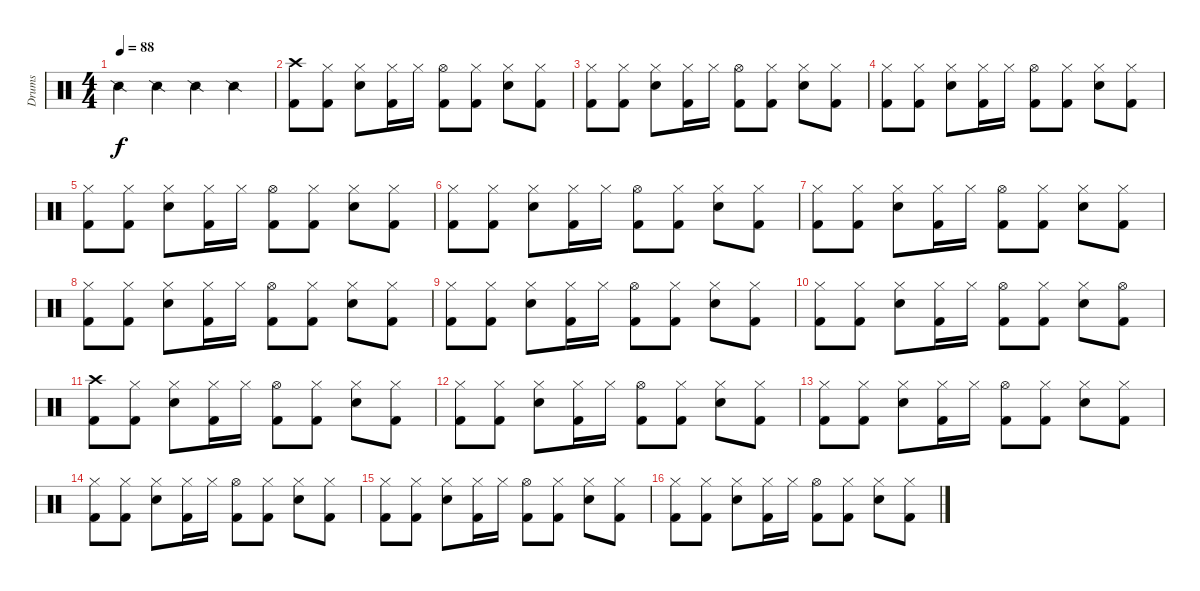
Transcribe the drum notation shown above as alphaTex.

\track ("Drums" "Drums") {instrument percussion}
\staff {score}
\articulation defaults
\ts (4 4)
\tempo 88
\clef neutral
\ks c "Snare (side stick) 2".4{dy f} "Snare (side stick) 2".4 "Snare (side stick) 2".4 "Snare (side stick) 2".4
|
("Crash high (hit)" "Kick (hit) 2").8 ("Hi-Hat (closed)" "Kick (hit) 2").8 ("Hi-Hat (closed)" "Electric Snare (hit)").8 ("Hi-Hat (closed)" "Kick (hit) 2").16 "Hi-Hat (closed)".16 ("Hi-Hat (open)" "Kick (hit) 2").8 ("Hi-Hat (closed)" "Kick (hit) 2").8 ("Hi-Hat (closed)" "Electric Snare (hit)").8 ("Hi-Hat (closed)" "Kick (hit) 2").8 |
("Hi-Hat (closed)" "Kick (hit) 2").8 ("Hi-Hat (closed)" "Kick (hit) 2").8 ("Hi-Hat (closed)" "Electric Snare (hit)").8 ("Hi-Hat (closed)" "Kick (hit) 2").16 "Hi-Hat (closed)".16 ("Hi-Hat (open)" "Kick (hit) 2").8 ("Hi-Hat (closed)" "Kick (hit) 2").8 ("Hi-Hat (closed)" "Electric Snare (hit)").8 ("Hi-Hat (closed)" "Kick (hit) 2").8 |
("Hi-Hat (closed)" "Kick (hit) 2").8 ("Hi-Hat (closed)" "Kick (hit) 2").8 ("Hi-Hat (closed)" "Electric Snare (hit)").8 ("Hi-Hat (closed)" "Kick (hit) 2").16 "Hi-Hat (closed)".16 ("Hi-Hat (open)" "Kick (hit) 2").8 ("Hi-Hat (closed)" "Kick (hit) 2").8 ("Hi-Hat (closed)" "Electric Snare (hit)").8 ("Hi-Hat (closed)" "Kick (hit) 2").8 |
("Hi-Hat (closed)" "Kick (hit) 2").8 ("Hi-Hat (closed)" "Kick (hit) 2").8 ("Hi-Hat (closed)" "Electric Snare (hit)").8 ("Hi-Hat (closed)" "Kick (hit) 2").16 "Hi-Hat (closed)".16 ("Hi-Hat (open)" "Kick (hit) 2").8 ("Hi-Hat (closed)" "Kick (hit) 2").8 ("Hi-Hat (closed)" "Electric Snare (hit)").8 ("Hi-Hat (closed)" "Kick (hit) 2").8 |
("Hi-Hat (closed)" "Kick (hit) 2").8 ("Hi-Hat (closed)" "Kick (hit) 2").8 ("Hi-Hat (closed)" "Electric Snare (hit)").8 ("Hi-Hat (closed)" "Kick (hit) 2").16 "Hi-Hat (closed)".16 ("Hi-Hat (open)" "Kick (hit) 2").8 ("Hi-Hat (closed)" "Kick (hit) 2").8 ("Hi-Hat (closed)" "Electric Snare (hit)").8 ("Hi-Hat (closed)" "Kick (hit) 2").8 |
("Hi-Hat (closed)" "Kick (hit) 2").8 ("Hi-Hat (closed)" "Kick (hit) 2").8 ("Hi-Hat (closed)" "Electric Snare (hit)").8 ("Hi-Hat (closed)" "Kick (hit) 2").16 "Hi-Hat (closed)".16 ("Hi-Hat (open)" "Kick (hit) 2").8 ("Hi-Hat (closed)" "Kick (hit) 2").8 ("Hi-Hat (closed)" "Electric Snare (hit)").8 ("Hi-Hat (closed)" "Kick (hit) 2").8 |
("Hi-Hat (closed)" "Kick (hit) 2").8 ("Hi-Hat (closed)" "Kick (hit) 2").8 ("Hi-Hat (closed)" "Electric Snare (hit)").8 ("Hi-Hat (closed)" "Kick (hit) 2").16 "Hi-Hat (closed)".16 ("Hi-Hat (open)" "Kick (hit) 2").8 ("Hi-Hat (closed)" "Kick (hit) 2").8 ("Hi-Hat (closed)" "Electric Snare (hit)").8 ("Hi-Hat (closed)" "Kick (hit) 2").8 |
("Hi-Hat (closed)" "Kick (hit) 2").8 ("Hi-Hat (closed)" "Kick (hit) 2").8 ("Hi-Hat (closed)" "Electric Snare (hit)").8 ("Hi-Hat (closed)" "Kick (hit) 2").16 "Hi-Hat (closed)".16 ("Hi-Hat (open)" "Kick (hit) 2").8 ("Hi-Hat (closed)" "Kick (hit) 2").8 ("Hi-Hat (closed)" "Electric Snare (hit)").8 ("Hi-Hat (closed)" "Kick (hit) 2").8 |
("Hi-Hat (closed)" "Kick (hit) 2").8 ("Hi-Hat (closed)" "Kick (hit) 2").8 ("Hi-Hat (closed)" "Electric Snare (hit)").8 ("Hi-Hat (closed)" "Kick (hit) 2").16 "Hi-Hat (closed)".16 ("Hi-Hat (open)" "Kick (hit) 2").8 ("Hi-Hat (closed)" "Kick (hit) 2").8 ("Hi-Hat (closed)" "Electric Snare (hit)").8 ("Hi-Hat (open)" "Kick (hit) 2").8 |
("Crash high (hit)" "Kick (hit) 2").8 ("Hi-Hat (closed)" "Kick (hit) 2").8 ("Hi-Hat (closed)" "Electric Snare (hit)").8 ("Hi-Hat (closed)" "Kick (hit) 2").16 "Hi-Hat (closed)".16 ("Hi-Hat (open)" "Kick (hit) 2").8 ("Hi-Hat (closed)" "Kick (hit) 2").8 ("Hi-Hat (closed)" "Electric Snare (hit)").8 ("Hi-Hat (closed)" "Kick (hit) 2").8 |
("Hi-Hat (closed)" "Kick (hit) 2").8 ("Hi-Hat (closed)" "Kick (hit) 2").8 ("Hi-Hat (closed)" "Electric Snare (hit)").8 ("Hi-Hat (closed)" "Kick (hit) 2").16 "Hi-Hat (closed)".16 ("Hi-Hat (open)" "Kick (hit) 2").8 ("Hi-Hat (closed)" "Kick (hit) 2").8 ("Hi-Hat (closed)" "Electric Snare (hit)").8 ("Hi-Hat (closed)" "Kick (hit) 2").8 |
("Hi-Hat (closed)" "Kick (hit) 2").8 ("Hi-Hat (closed)" "Kick (hit) 2").8 ("Hi-Hat (closed)" "Electric Snare (hit)").8 ("Hi-Hat (closed)" "Kick (hit) 2").16 "Hi-Hat (closed)".16 ("Hi-Hat (open)" "Kick (hit) 2").8 ("Hi-Hat (closed)" "Kick (hit) 2").8 ("Hi-Hat (closed)" "Electric Snare (hit)").8 ("Hi-Hat (closed)" "Kick (hit) 2").8 |
("Hi-Hat (closed)" "Kick (hit) 2").8 ("Hi-Hat (closed)" "Kick (hit) 2").8 ("Hi-Hat (closed)" "Electric Snare (hit)").8 ("Hi-Hat (closed)" "Kick (hit) 2").16 "Hi-Hat (closed)".16 ("Hi-Hat (open)" "Kick (hit) 2").8 ("Hi-Hat (closed)" "Kick (hit) 2").8 ("Hi-Hat (closed)" "Electric Snare (hit)").8 ("Hi-Hat (closed)" "Kick (hit) 2").8 |
("Hi-Hat (closed)" "Kick (hit) 2").8 ("Hi-Hat (closed)" "Kick (hit) 2").8 ("Hi-Hat (closed)" "Electric Snare (hit)").8 ("Hi-Hat (closed)" "Kick (hit) 2").16 "Hi-Hat (closed)".16 ("Hi-Hat (open)" "Kick (hit) 2").8 ("Hi-Hat (closed)" "Kick (hit) 2").8 ("Hi-Hat (closed)" "Electric Snare (hit)").8 ("Hi-Hat (closed)" "Kick (hit) 2").8 |
("Hi-Hat (closed)" "Kick (hit) 2").8 ("Hi-Hat (closed)" "Kick (hit) 2").8 ("Hi-Hat (closed)" "Electric Snare (hit)").8 ("Hi-Hat (closed)" "Kick (hit) 2").16 "Hi-Hat (closed)".16 ("Hi-Hat (open)" "Kick (hit) 2").8 ("Hi-Hat (closed)" "Kick (hit) 2").8 ("Hi-Hat (closed)" "Electric Snare (hit)").8 ("Hi-Hat (closed)" "Kick (hit) 2").8
